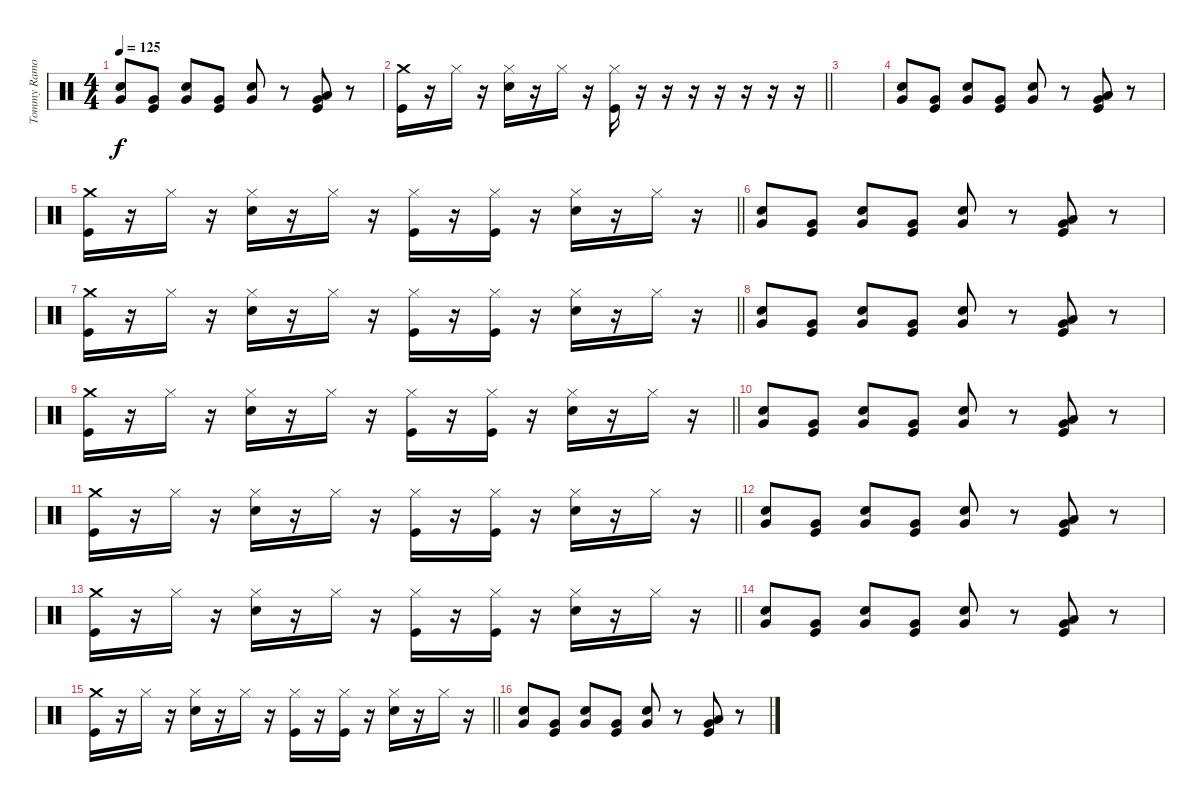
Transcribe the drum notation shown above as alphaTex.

\track ("Tommy Ramone" "Tommy Ramo") {instrument percussion}
\staff {score}
\articulation defaults
\ts (4 4)
\tempo 125
\clef neutral
\ks c
("Very Low Tom (hit)" "Snare (hit) 2").8{dy f} ("Very Low Tom (hit)" "Kick (hit)").8 ("Very Low Tom (hit)" "Snare (hit) 2").8 ("Very Low Tom (hit)" "Kick (hit)").8 ("Very Low Tom (hit)" "Snare (hit) 2").8 r.8 ("Low Tom (hit)" "Very Low Tom (hit)" "Kick (hit)").8 r.8 |
\barLineRight lightlight
("Crash medium (hit)" "Kick (hit)").16 r.16 "Hi-Hat (closed)".16 r.16 ("Hi-Hat (closed)" "Snare (hit) 2").16 r.16 "Hi-Hat (closed)".16 r.16 ("Hi-Hat (closed)" "Kick (hit)").16 r.16 r.16 r.16 r.16 r.16 r.16 r.16 |
|
("Very Low Tom (hit)" "Snare (hit) 2").8 ("Very Low Tom (hit)" "Kick (hit)").8 ("Very Low Tom (hit)" "Snare (hit) 2").8 ("Very Low Tom (hit)" "Kick (hit)").8 ("Very Low Tom (hit)" "Snare (hit) 2").8 r.8 ("Low Tom (hit)" "Very Low Tom (hit)" "Kick (hit)").8 r.8 |
\barLineRight lightlight
("Crash medium (hit)" "Kick (hit)").16 r.16 "Hi-Hat (closed)".16 r.16 ("Hi-Hat (closed)" "Snare (hit) 2").16 r.16 "Hi-Hat (closed)".16 r.16 ("Hi-Hat (closed)" "Kick (hit)").16 r.16 ("Hi-Hat (closed)" "Kick (hit)").16 r.16 ("Hi-Hat (closed)" "Snare (hit) 2").16 r.16 "Hi-Hat (closed)".16 r.16 |
("Very Low Tom (hit)" "Snare (hit) 2").8 ("Very Low Tom (hit)" "Kick (hit)").8 ("Very Low Tom (hit)" "Snare (hit) 2").8 ("Very Low Tom (hit)" "Kick (hit)").8 ("Very Low Tom (hit)" "Snare (hit) 2").8 r.8 ("Low Tom (hit)" "Very Low Tom (hit)" "Kick (hit)").8 r.8 |
\barLineRight lightlight
("Crash medium (hit)" "Kick (hit)").16 r.16 "Hi-Hat (closed)".16 r.16 ("Hi-Hat (closed)" "Snare (hit) 2").16 r.16 "Hi-Hat (closed)".16 r.16 ("Hi-Hat (closed)" "Kick (hit)").16 r.16 ("Hi-Hat (closed)" "Kick (hit)").16 r.16 ("Hi-Hat (closed)" "Snare (hit) 2").16 r.16 "Hi-Hat (closed)".16 r.16 |
("Very Low Tom (hit)" "Snare (hit) 2").8 ("Very Low Tom (hit)" "Kick (hit)").8 ("Very Low Tom (hit)" "Snare (hit) 2").8 ("Very Low Tom (hit)" "Kick (hit)").8 ("Very Low Tom (hit)" "Snare (hit) 2").8 r.8 ("Low Tom (hit)" "Very Low Tom (hit)" "Kick (hit)").8 r.8 |
\barLineRight lightlight
("Crash medium (hit)" "Kick (hit)").16 r.16 "Hi-Hat (closed)".16 r.16 ("Hi-Hat (closed)" "Snare (hit) 2").16 r.16 "Hi-Hat (closed)".16 r.16 ("Hi-Hat (closed)" "Kick (hit)").16 r.16 ("Hi-Hat (closed)" "Kick (hit)").16 r.16 ("Hi-Hat (closed)" "Snare (hit) 2").16 r.16 "Hi-Hat (closed)".16 r.16 |
("Very Low Tom (hit)" "Snare (hit) 2").8 ("Very Low Tom (hit)" "Kick (hit)").8 ("Very Low Tom (hit)" "Snare (hit) 2").8 ("Very Low Tom (hit)" "Kick (hit)").8 ("Very Low Tom (hit)" "Snare (hit) 2").8 r.8 ("Low Tom (hit)" "Very Low Tom (hit)" "Kick (hit)").8 r.8 |
\barLineRight lightlight
("Crash medium (hit)" "Kick (hit)").16 r.16 "Hi-Hat (closed)".16 r.16 ("Hi-Hat (closed)" "Snare (hit) 2").16 r.16 "Hi-Hat (closed)".16 r.16 ("Hi-Hat (closed)" "Kick (hit)").16 r.16 ("Hi-Hat (closed)" "Kick (hit)").16 r.16 ("Hi-Hat (closed)" "Snare (hit) 2").16 r.16 "Hi-Hat (closed)".16 r.16 |
("Very Low Tom (hit)" "Snare (hit) 2").8 ("Very Low Tom (hit)" "Kick (hit)").8 ("Very Low Tom (hit)" "Snare (hit) 2").8 ("Very Low Tom (hit)" "Kick (hit)").8 ("Very Low Tom (hit)" "Snare (hit) 2").8 r.8 ("Low Tom (hit)" "Very Low Tom (hit)" "Kick (hit)").8 r.8 |
\barLineRight lightlight
("Crash medium (hit)" "Kick (hit)").16 r.16 "Hi-Hat (closed)".16 r.16 ("Hi-Hat (closed)" "Snare (hit) 2").16 r.16 "Hi-Hat (closed)".16 r.16 ("Hi-Hat (closed)" "Kick (hit)").16 r.16 ("Hi-Hat (closed)" "Kick (hit)").16 r.16 ("Hi-Hat (closed)" "Snare (hit) 2").16 r.16 "Hi-Hat (closed)".16 r.16 |
("Very Low Tom (hit)" "Snare (hit) 2").8 ("Very Low Tom (hit)" "Kick (hit)").8 ("Very Low Tom (hit)" "Snare (hit) 2").8 ("Very Low Tom (hit)" "Kick (hit)").8 ("Very Low Tom (hit)" "Snare (hit) 2").8 r.8 ("Low Tom (hit)" "Very Low Tom (hit)" "Kick (hit)").8 r.8 |
\barLineRight lightlight
("Crash medium (hit)" "Kick (hit)").16 r.16 "Hi-Hat (closed)".16 r.16 ("Hi-Hat (closed)" "Snare (hit) 2").16 r.16 "Hi-Hat (closed)".16 r.16 ("Hi-Hat (closed)" "Kick (hit)").16 r.16 ("Hi-Hat (closed)" "Kick (hit)").16 r.16 ("Hi-Hat (closed)" "Snare (hit) 2").16 r.16 "Hi-Hat (closed)".16 r.16 |
("Very Low Tom (hit)" "Snare (hit) 2").8 ("Very Low Tom (hit)" "Kick (hit)").8 ("Very Low Tom (hit)" "Snare (hit) 2").8 ("Very Low Tom (hit)" "Kick (hit)").8 ("Very Low Tom (hit)" "Snare (hit) 2").8 r.8 ("Low Tom (hit)" "Very Low Tom (hit)" "Kick (hit)").8 r.8
